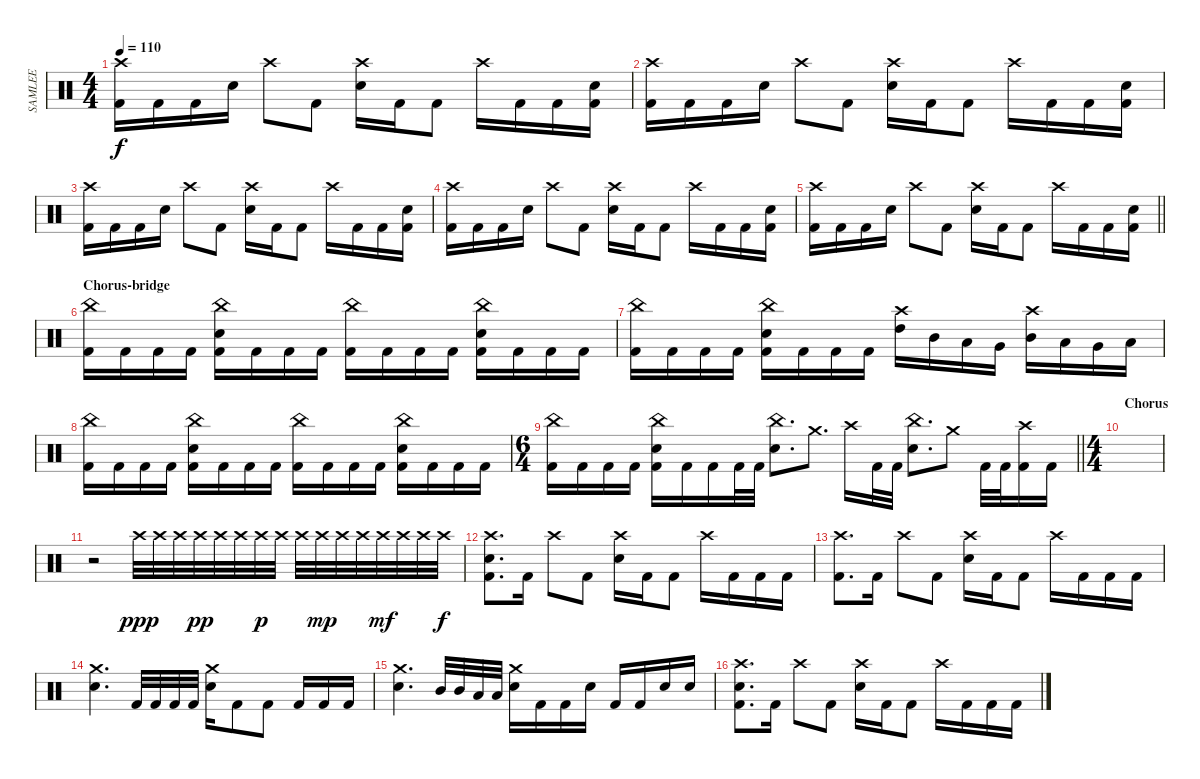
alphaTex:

\track ("SAMLEE" "SAMLEE") {instrument percussion}
\staff {score}
\articulation defaults
\ts (4 4)
\tempo 110
\clef neutral
\ks c
("Crash high (hit)" "Kick (hit) 2").16{dy f} "Kick (hit) 2".16 "Kick (hit) 2".16 "Snare (hit) 2".16 "Crash high (hit)".8 "Kick (hit) 2".8 ("Crash high (hit)" "Snare (hit) 2").16 "Kick (hit) 2".16 "Kick (hit) 2".8 "Crash high (hit)".16 "Kick (hit) 2".16 "Kick (hit) 2".16 ("Snare (hit) 2" "Kick (hit) 2").16 |
("Crash high (hit)" "Kick (hit) 2").16 "Kick (hit) 2".16 "Kick (hit) 2".16 "Snare (hit) 2".16 "Crash high (hit)".8 "Kick (hit) 2".8 ("Crash high (hit)" "Snare (hit) 2").16 "Kick (hit) 2".16 "Kick (hit) 2".8 "Crash high (hit)".16 "Kick (hit) 2".16 "Kick (hit) 2".16 ("Snare (hit) 2" "Kick (hit) 2").16 |
("Crash high (hit)" "Kick (hit) 2").16 "Kick (hit) 2".16 "Kick (hit) 2".16 "Snare (hit) 2".16 "Crash high (hit)".8 "Kick (hit) 2".8 ("Crash high (hit)" "Snare (hit) 2").16 "Kick (hit) 2".16 "Kick (hit) 2".8 "Crash high (hit)".16 "Kick (hit) 2".16 "Kick (hit) 2".16 ("Snare (hit) 2" "Kick (hit) 2").16 |
("Crash high (hit)" "Kick (hit) 2").16 "Kick (hit) 2".16 "Kick (hit) 2".16 "Snare (hit) 2".16 "Crash high (hit)".8 "Kick (hit) 2".8 ("Crash high (hit)" "Snare (hit) 2").16 "Kick (hit) 2".16 "Kick (hit) 2".8 "Crash high (hit)".16 "Kick (hit) 2".16 "Kick (hit) 2".16 ("Snare (hit) 2" "Kick (hit) 2").16 |
\barLineRight lightlight
("Crash high (hit)" "Kick (hit) 2").16 "Kick (hit) 2".16 "Kick (hit) 2".16 "Snare (hit) 2".16 "Crash high (hit)".8 "Kick (hit) 2".8 ("Crash high (hit)" "Snare (hit) 2").16 "Kick (hit) 2".16 "Kick (hit) 2".8 "Crash high (hit)".16 "Kick (hit) 2".16 "Kick (hit) 2".16 ("Snare (hit) 2" "Kick (hit) 2").16 |
\section ("" "Chorus-bridge")
("China (hit)" "Kick (hit) 2").16 "Kick (hit) 2".16 "Kick (hit) 2".16 "Kick (hit) 2".16 ("China (hit)" "Snare (hit) 2" "Kick (hit) 2").16 "Kick (hit) 2".16 "Kick (hit) 2".16 "Kick (hit) 2".16 ("China (hit)" "Kick (hit) 2").16 "Kick (hit) 2".16 "Kick (hit) 2".16 "Kick (hit) 2".16 ("China (hit)" "Snare (hit) 2" "Kick (hit) 2").16 "Kick (hit) 2".16 "Kick (hit) 2".16 "Kick (hit) 2".16 |
("China (hit)" "Kick (hit) 2").16 "Kick (hit) 2".16 "Kick (hit) 2".16 "Kick (hit) 2".16 ("China (hit)" "Snare (hit) 2" "Kick (hit) 2").16 "Kick (hit) 2".16 "Kick (hit) 2".16 "Kick (hit) 2".16 ("Crash high (hit)" "High Tom (hit)").16 "Mid Tom (hit)".16 "Low Tom (hit)".16 "Very Low Tom (hit)".16 ("Crash high (hit)" "Mid Tom (hit)").16 "Low Tom (hit)".16 "Very Low Tom (hit)".16 "Low Floor Tom (hit)".16 |
("China (hit)" "Kick (hit) 2").16 "Kick (hit) 2".16 "Kick (hit) 2".16 "Kick (hit) 2".16 ("China (hit)" "Snare (hit) 2" "Kick (hit) 2").16 "Kick (hit) 2".16 "Kick (hit) 2".16 "Kick (hit) 2".16 ("China (hit)" "Kick (hit) 2").16 "Kick (hit) 2".16 "Kick (hit) 2".16 "Kick (hit) 2".16 ("China (hit)" "Snare (hit) 2" "Kick (hit) 2").16 "Kick (hit) 2".16 "Kick (hit) 2".16 "Kick (hit) 2".16 |
\ts (6 4)
\barLineRight lightlight
("China (hit)" "Kick (hit) 2").16 "Kick (hit) 2".16 "Kick (hit) 2".16 "Kick (hit) 2".16 ("China (hit)" "Snare (hit) 2" "Kick (hit) 2").16 "Kick (hit) 2".16 "Kick (hit) 2".16 "Kick (hit) 2".32 "Kick (hit) 2".32 ("China (hit)" "Snare (hit) 2").8{d} "Crash medium (hit)".8{d} "Crash high (hit)".16 "Kick (hit) 2".32 "Kick (hit) 2".32 ("China (hit)" "Snare (hit) 2").8{d} "Crash medium (hit)".8 "Kick (hit) 2".32 "Kick (hit) 2".32 ("Crash high (hit)" "Kick (hit) 2").16 "Kick (hit) 2".16 |
\ts (4 4)
\section ("" "Chorus")
|
r.2 "Crash high (hit)".32{dy ppp} "Crash high (hit)".32 "Crash high (hit)".32 "Crash high (hit)".32{dy pp} "Crash high (hit)".32 "Crash high (hit)".32 "Crash high (hit)".32{dy p} "Crash high (hit)".32 "Crash high (hit)".32 "Crash high (hit)".32{dy mp} "Crash high (hit)".32 "Crash high (hit)".32 "Crash high (hit)".32{dy mf} "Crash high (hit)".32 "Crash high (hit)".32 "Crash high (hit)".32{dy f} |
("Crash high (hit)" "Snare (hit) 2" "Kick (hit) 2").8{d} "Kick (hit) 2".16 "Crash high (hit)".8 "Kick (hit) 2".8 ("Crash high (hit)" "Snare (hit) 2").16 "Kick (hit) 2".16 "Kick (hit) 2".8 "Crash high (hit)".16 "Kick (hit) 2".16 "Kick (hit) 2".16 "Kick (hit) 2".16 |
("Crash high (hit)" "Kick (hit) 2").8{d} "Kick (hit) 2".16 "Crash high (hit)".8 "Kick (hit) 2".8 ("Crash high (hit)" "Snare (hit) 2").16 "Kick (hit) 2".16 "Kick (hit) 2".8 "Crash high (hit)".16 "Kick (hit) 2".16 "Kick (hit) 2".16 "Kick (hit) 2".16 |
("Crash medium (hit)" "Snare (hit) 2").4{d} "Kick (hit) 2".32 "Kick (hit) 2".32 "Kick (hit) 2".32 "Kick (hit) 2".32 ("Crash medium (hit)" "Snare (hit) 2").16 "Kick (hit) 2".8 "Kick (hit) 2".8 "Kick (hit) 2".16 "Kick (hit) 2".16 "Kick (hit) 2".16 |
("Crash medium (hit)" "Snare (hit) 2").4{d} "Mid Tom (hit)".32 "Mid Tom (hit)".32 "Low Tom (hit)".32 "Low Tom (hit)".32 ("Crash medium (hit)" "Snare (hit) 2").16 "Kick (hit) 2".16 "Kick (hit) 2".16 "Snare (hit) 2".16 "Kick (hit) 2".16 "Kick (hit) 2".16 "Snare (hit) 2".16 "Snare (hit) 2".16 |
("Crash high (hit)" "Snare (hit) 2" "Kick (hit) 2").8{d} "Kick (hit) 2".16 "Crash high (hit)".8 "Kick (hit) 2".8 ("Crash high (hit)" "Snare (hit) 2").16 "Kick (hit) 2".16 "Kick (hit) 2".8 "Crash high (hit)".16 "Kick (hit) 2".16 "Kick (hit) 2".16 "Kick (hit) 2".16
